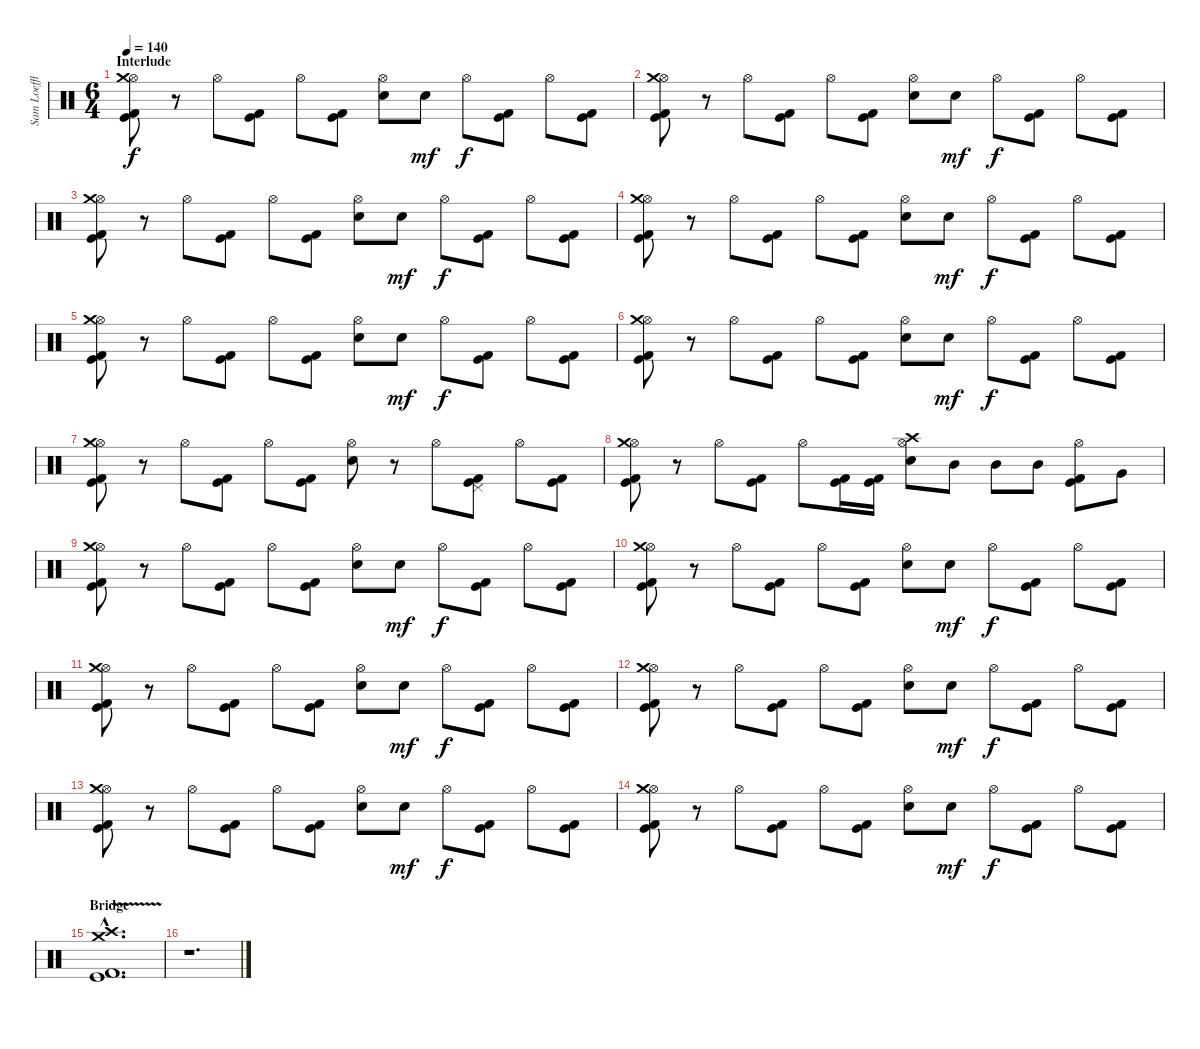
\track ("Sam Loeffler - Drums" "Sam Loeffl") {instrument percussion}
\staff {score}
\articulation defaults
\ts (6 4)
\section ("" "Interlude")
\tempo 140
\clef neutral
\ks c
("Hi-Hat (open)" "Crash medium (hit)" "Kick (hit)" "Kick (hit) 2").8{dy f} r.8 "Hi-Hat (open)".8 ("Kick (hit)" "Kick (hit) 2").8 "Hi-Hat (open)".8 ("Kick (hit)" "Kick (hit) 2").8 ("Hi-Hat (open)" "Electric Snare (hit)").8 "Electric Snare (hit)".8{dy mf} "Hi-Hat (open)".8{dy f} ("Kick (hit)" "Kick (hit) 2").8 "Hi-Hat (open)".8 ("Kick (hit)" "Kick (hit) 2").8 |
("Hi-Hat (open)" "Crash medium (hit)" "Kick (hit)" "Kick (hit) 2").8 r.8 "Hi-Hat (open)".8 ("Kick (hit)" "Kick (hit) 2").8 "Hi-Hat (open)".8 ("Kick (hit)" "Kick (hit) 2").8 ("Hi-Hat (open)" "Electric Snare (hit)").8 "Electric Snare (hit)".8{dy mf} "Hi-Hat (open)".8{dy f} ("Kick (hit)" "Kick (hit) 2").8 "Hi-Hat (open)".8 ("Kick (hit)" "Kick (hit) 2").8 |
("Hi-Hat (open)" "Crash medium (hit)" "Kick (hit)" "Kick (hit) 2").8 r.8 "Hi-Hat (open)".8 ("Kick (hit)" "Kick (hit) 2").8 "Hi-Hat (open)".8 ("Kick (hit)" "Kick (hit) 2").8 ("Hi-Hat (open)" "Electric Snare (hit)").8 "Electric Snare (hit)".8{dy mf} "Hi-Hat (open)".8{dy f} ("Kick (hit)" "Kick (hit) 2").8 "Hi-Hat (open)".8 ("Kick (hit)" "Kick (hit) 2").8 |
("Hi-Hat (open)" "Crash medium (hit)" "Kick (hit)" "Kick (hit) 2").8 r.8 "Hi-Hat (open)".8 ("Kick (hit)" "Kick (hit) 2").8 "Hi-Hat (open)".8 ("Kick (hit)" "Kick (hit) 2").8 ("Hi-Hat (open)" "Electric Snare (hit)").8 "Electric Snare (hit)".8{dy mf} "Hi-Hat (open)".8{dy f} ("Kick (hit)" "Kick (hit) 2").8 "Hi-Hat (open)".8 ("Kick (hit)" "Kick (hit) 2").8 |
("Hi-Hat (open)" "Crash medium (hit)" "Kick (hit)" "Kick (hit) 2").8 r.8 "Hi-Hat (open)".8 ("Kick (hit)" "Kick (hit) 2").8 "Hi-Hat (open)".8 ("Kick (hit)" "Kick (hit) 2").8 ("Hi-Hat (open)" "Electric Snare (hit)").8 "Electric Snare (hit)".8{dy mf} "Hi-Hat (open)".8{dy f} ("Kick (hit)" "Kick (hit) 2").8 "Hi-Hat (open)".8 ("Kick (hit)" "Kick (hit) 2").8 |
("Hi-Hat (open)" "Crash medium (hit)" "Kick (hit)" "Kick (hit) 2").8 r.8 "Hi-Hat (open)".8 ("Kick (hit)" "Kick (hit) 2").8 "Hi-Hat (open)".8 ("Kick (hit)" "Kick (hit) 2").8 ("Hi-Hat (open)" "Electric Snare (hit)").8 "Electric Snare (hit)".8{dy mf} "Hi-Hat (open)".8{dy f} ("Kick (hit)" "Kick (hit) 2").8 "Hi-Hat (open)".8 ("Kick (hit)" "Kick (hit) 2").8 |
("Hi-Hat (open)" "Crash medium (hit)" "Kick (hit)" "Kick (hit) 2").8 r.8 "Hi-Hat (open)".8 ("Kick (hit)" "Kick (hit) 2").8 "Hi-Hat (open)".8 ("Kick (hit)" "Kick (hit) 2").8 ("Hi-Hat (open)" "Electric Snare (hit)").8 r.8 "Hi-Hat (open)".8 ("Pedal Hi-Hat (hit)" "Kick (hit)" "Kick (hit) 2").8 "Hi-Hat (open)".8 ("Kick (hit)" "Kick (hit) 2").8 |
("Hi-Hat (open)" "Crash medium (hit)" "Kick (hit)" "Kick (hit) 2").8 r.8 "Hi-Hat (open)".8 ("Kick (hit)" "Kick (hit) 2").8 "Hi-Hat (open)".8 ("Kick (hit)" "Kick (hit) 2").16 ("Kick (hit)" "Kick (hit) 2").16 ("Hi-Hat (open)" "Crash high (hit)" "Electric Snare (hit)").8 "Mid Tom (hit)".8 "Mid Tom (hit)".8 "Mid Tom (hit)".8 ("Hi-Hat (open)" "Kick (hit)" "Kick (hit) 2").8 "Very Low Tom (hit)".8 |
("Hi-Hat (open)" "Crash medium (hit)" "Kick (hit)" "Kick (hit) 2").8 r.8 "Hi-Hat (open)".8 ("Kick (hit)" "Kick (hit) 2").8 "Hi-Hat (open)".8 ("Kick (hit)" "Kick (hit) 2").8 ("Hi-Hat (open)" "Electric Snare (hit)").8 "Electric Snare (hit)".8{dy mf} "Hi-Hat (open)".8{dy f} ("Kick (hit)" "Kick (hit) 2").8 "Hi-Hat (open)".8 ("Kick (hit)" "Kick (hit) 2").8 |
("Hi-Hat (open)" "Crash medium (hit)" "Kick (hit)" "Kick (hit) 2").8 r.8 "Hi-Hat (open)".8 ("Kick (hit)" "Kick (hit) 2").8 "Hi-Hat (open)".8 ("Kick (hit)" "Kick (hit) 2").8 ("Hi-Hat (open)" "Electric Snare (hit)").8 "Electric Snare (hit)".8{dy mf} "Hi-Hat (open)".8{dy f} ("Kick (hit)" "Kick (hit) 2").8 "Hi-Hat (open)".8 ("Kick (hit)" "Kick (hit) 2").8 |
("Hi-Hat (open)" "Crash medium (hit)" "Kick (hit)" "Kick (hit) 2").8 r.8 "Hi-Hat (open)".8 ("Kick (hit)" "Kick (hit) 2").8 "Hi-Hat (open)".8 ("Kick (hit)" "Kick (hit) 2").8 ("Hi-Hat (open)" "Electric Snare (hit)").8 "Electric Snare (hit)".8{dy mf} "Hi-Hat (open)".8{dy f} ("Kick (hit)" "Kick (hit) 2").8 "Hi-Hat (open)".8 ("Kick (hit)" "Kick (hit) 2").8 |
("Hi-Hat (open)" "Crash medium (hit)" "Kick (hit)" "Kick (hit) 2").8 r.8 "Hi-Hat (open)".8 ("Kick (hit)" "Kick (hit) 2").8 "Hi-Hat (open)".8 ("Kick (hit)" "Kick (hit) 2").8 ("Hi-Hat (open)" "Electric Snare (hit)").8 "Electric Snare (hit)".8{dy mf} "Hi-Hat (open)".8{dy f} ("Kick (hit)" "Kick (hit) 2").8 "Hi-Hat (open)".8 ("Kick (hit)" "Kick (hit) 2").8 |
("Hi-Hat (open)" "Crash medium (hit)" "Kick (hit)" "Kick (hit) 2").8 r.8 "Hi-Hat (open)".8 ("Kick (hit)" "Kick (hit) 2").8 "Hi-Hat (open)".8 ("Kick (hit)" "Kick (hit) 2").8 ("Hi-Hat (open)" "Electric Snare (hit)").8 "Electric Snare (hit)".8{dy mf} "Hi-Hat (open)".8{dy f} ("Kick (hit)" "Kick (hit) 2").8 "Hi-Hat (open)".8 ("Kick (hit)" "Kick (hit) 2").8 |
("Hi-Hat (open)" "Crash medium (hit)" "Kick (hit)" "Kick (hit) 2").8 r.8 "Hi-Hat (open)".8 ("Kick (hit)" "Kick (hit) 2").8 "Hi-Hat (open)".8 ("Kick (hit)" "Kick (hit) 2").8 ("Hi-Hat (open)" "Electric Snare (hit)").8 "Electric Snare (hit)".8{dy mf} "Hi-Hat (open)".8{dy f} ("Kick (hit)" "Kick (hit) 2").8 "Hi-Hat (open)".8 ("Kick (hit)" "Kick (hit) 2").8 |
\section ("" "Bridge")
("Crash high (hit)"{v hac} "Crash medium (hit)"{hac} "Kick (hit)"{hac} "Kick (hit) 2"{hac}).1{d} |
r.1{d}
